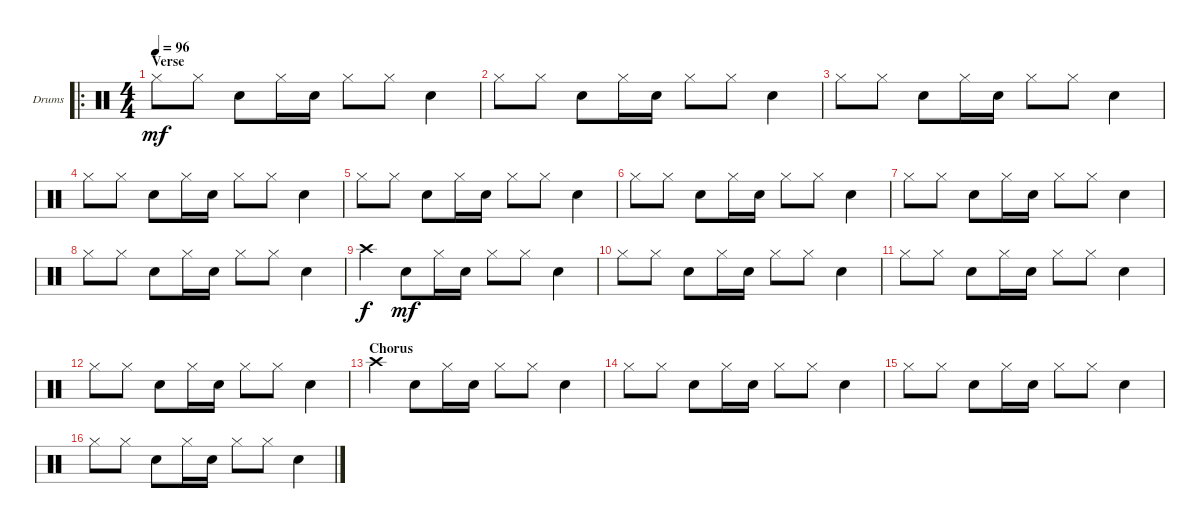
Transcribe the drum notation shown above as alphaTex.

\bracketExtendMode groupsimilarinstruments
\firstSystemTrackNameOrientation horizontal
\otherSystemsTrackNameOrientation horizontal
\track ("Drumkit" "Drums") {instrument percussion}
\staff {score}
\articulation defaults
\ro
\ts (4 4)
\section ("" "Verse")
\tempo 96
\clef neutral
\ks c "Hi-Hat (closed)".8{dy mf} "Hi-Hat (closed)".8 "Snare (hit) 2".8 "Hi-Hat (closed)".16 "Snare (hit) 2".16{beam split} "Hi-Hat (closed)".8{beam merge} "Hi-Hat (closed)".8 "Snare (hit) 2".4
|
"Hi-Hat (closed)".8 "Hi-Hat (closed)".8 "Snare (hit) 2".8 "Hi-Hat (closed)".16 "Snare (hit) 2".16{beam split} "Hi-Hat (closed)".8{beam merge} "Hi-Hat (closed)".8 "Snare (hit) 2".4 |
"Hi-Hat (closed)".8 "Hi-Hat (closed)".8 "Snare (hit) 2".8 "Hi-Hat (closed)".16 "Snare (hit) 2".16{beam split} "Hi-Hat (closed)".8{beam merge} "Hi-Hat (closed)".8 "Snare (hit) 2".4 |
"Hi-Hat (closed)".8 "Hi-Hat (closed)".8 "Snare (hit) 2".8 "Hi-Hat (closed)".16 "Snare (hit) 2".16{beam split} "Hi-Hat (closed)".8{beam merge} "Hi-Hat (closed)".8 "Snare (hit) 2".4 |
"Hi-Hat (closed)".8 "Hi-Hat (closed)".8 "Snare (hit) 2".8 "Hi-Hat (closed)".16 "Snare (hit) 2".16{beam split} "Hi-Hat (closed)".8{beam merge} "Hi-Hat (closed)".8 "Snare (hit) 2".4 |
"Hi-Hat (closed)".8 "Hi-Hat (closed)".8 "Snare (hit) 2".8 "Hi-Hat (closed)".16 "Snare (hit) 2".16{beam split} "Hi-Hat (closed)".8{beam merge} "Hi-Hat (closed)".8 "Snare (hit) 2".4 |
"Hi-Hat (closed)".8 "Hi-Hat (closed)".8 "Snare (hit) 2".8 "Hi-Hat (closed)".16 "Snare (hit) 2".16{beam split} "Hi-Hat (closed)".8{beam merge} "Hi-Hat (closed)".8 "Snare (hit) 2".4 |
"Hi-Hat (closed)".8 "Hi-Hat (closed)".8 "Snare (hit) 2".8 "Hi-Hat (closed)".16 "Snare (hit) 2".16{beam split} "Hi-Hat (closed)".8{beam merge} "Hi-Hat (closed)".8 "Snare (hit) 2".4 |
"Crash high (hit)".4{dy f} "Snare (hit) 2".8{dy mf} "Hi-Hat (closed)".16 "Snare (hit) 2".16{beam split} "Hi-Hat (closed)".8{beam merge} "Hi-Hat (closed)".8 "Snare (hit) 2".4 |
"Hi-Hat (closed)".8 "Hi-Hat (closed)".8 "Snare (hit) 2".8 "Hi-Hat (closed)".16 "Snare (hit) 2".16{beam split} "Hi-Hat (closed)".8{beam merge} "Hi-Hat (closed)".8 "Snare (hit) 2".4 |
"Hi-Hat (closed)".8 "Hi-Hat (closed)".8 "Snare (hit) 2".8 "Hi-Hat (closed)".16 "Snare (hit) 2".16{beam split} "Hi-Hat (closed)".8{beam merge} "Hi-Hat (closed)".8 "Snare (hit) 2".4 |
"Hi-Hat (closed)".8 "Hi-Hat (closed)".8 "Snare (hit) 2".8 "Hi-Hat (closed)".16 "Snare (hit) 2".16{beam split} "Hi-Hat (closed)".8{beam merge} "Hi-Hat (closed)".8 "Snare (hit) 2".4 |
\section ("" "Chorus")
"Crash high (hit)".4 "Snare (hit) 2".8 "Hi-Hat (closed)".16 "Snare (hit) 2".16{beam split} "Hi-Hat (closed)".8{beam merge} "Hi-Hat (closed)".8 "Snare (hit) 2".4 |
"Hi-Hat (closed)".8 "Hi-Hat (closed)".8 "Snare (hit) 2".8 "Hi-Hat (closed)".16 "Snare (hit) 2".16{beam split} "Hi-Hat (closed)".8{beam merge} "Hi-Hat (closed)".8 "Snare (hit) 2".4 |
"Hi-Hat (closed)".8 "Hi-Hat (closed)".8 "Snare (hit) 2".8 "Hi-Hat (closed)".16 "Snare (hit) 2".16{beam split} "Hi-Hat (closed)".8{beam merge} "Hi-Hat (closed)".8 "Snare (hit) 2".4 |
"Hi-Hat (closed)".8 "Hi-Hat (closed)".8 "Snare (hit) 2".8 "Hi-Hat (closed)".16 "Snare (hit) 2".16{beam split} "Hi-Hat (closed)".8{beam merge} "Hi-Hat (closed)".8 "Snare (hit) 2".4
